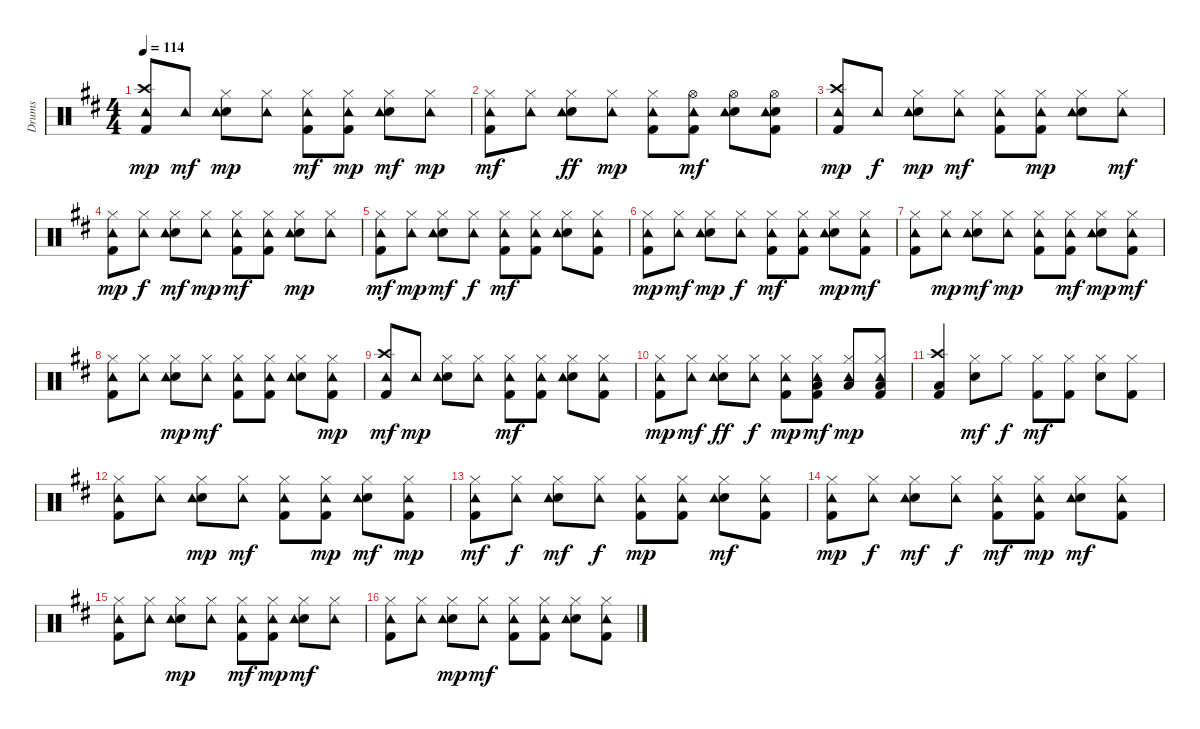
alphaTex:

\track ("Drums" "Drums") {instrument percussion}
\staff {score}
\articulation defaults
\ts (4 4)
\tempo 114
\clef neutral
\ks d
("Kick (hit) 2" "Crash high (hit)" "Tambourine (hit)").8{dy mp} "Tambourine (hit)".8{dy mf} ("Snare (hit) 2" "Hi-Hat (closed)" "Tambourine (hit)").8{dy mp} ("Hi-Hat (closed)" "Tambourine (hit)").8 ("Kick (hit) 2" "Hi-Hat (closed)" "Tambourine (hit)").8{dy mf} ("Kick (hit) 2" "Hi-Hat (closed)" "Tambourine (hit)").8{dy mp} ("Snare (hit) 2" "Hi-Hat (closed)" "Tambourine (hit)").8{dy mf} ("Hi-Hat (closed)" "Tambourine (hit)").8{dy mp} |
("Kick (hit) 2" "Hi-Hat (closed)" "Tambourine (hit)").8{dy mf} ("Hi-Hat (closed)" "Tambourine (hit)").8 ("Snare (hit) 2" "Hi-Hat (closed)" "Tambourine (hit)").8{dy ff} ("Hi-Hat (closed)" "Tambourine (hit)").8{dy mp} ("Kick (hit) 2" "Hi-Hat (closed)" "Tambourine (hit)").8 ("Kick (hit) 2" "Hi-Hat (open)" "Tambourine (hit)").8{dy mf} ("Snare (hit) 2" "Hi-Hat (open)" "Tambourine (hit)").8 ("Kick (hit) 2" "Snare (hit) 2" "Hi-Hat (open)" "Tambourine (hit)").8 |
("Kick (hit) 2" "Crash high (hit)" "Tambourine (hit)").8{dy mp} "Tambourine (hit)".8{dy f} ("Snare (hit) 2" "Hi-Hat (closed)" "Tambourine (hit)").8{dy mp} ("Hi-Hat (closed)" "Tambourine (hit)").8{dy mf} ("Kick (hit) 2" "Hi-Hat (closed)" "Tambourine (hit)").8 ("Kick (hit) 2" "Hi-Hat (closed)" "Tambourine (hit)").8{dy mp} ("Snare (hit) 2" "Hi-Hat (closed)" "Tambourine (hit)").8 ("Hi-Hat (closed)" "Tambourine (hit)").8{dy mf} |
("Kick (hit) 2" "Hi-Hat (closed)" "Tambourine (hit)").8{dy mp} ("Hi-Hat (closed)" "Tambourine (hit)").8{dy f} ("Snare (hit) 2" "Hi-Hat (closed)" "Tambourine (hit)").8{dy mf} ("Hi-Hat (closed)" "Tambourine (hit)").8{dy mp} ("Kick (hit) 2" "Hi-Hat (closed)" "Tambourine (hit)").8{dy mf} ("Kick (hit) 2" "Hi-Hat (closed)" "Tambourine (hit)").8 ("Snare (hit) 2" "Hi-Hat (closed)" "Tambourine (hit)").8{dy mp} ("Hi-Hat (closed)" "Tambourine (hit)").8 |
("Kick (hit) 2" "Hi-Hat (closed)" "Tambourine (hit)").8{dy mf} ("Hi-Hat (closed)" "Tambourine (hit)").8{dy mp} ("Snare (hit) 2" "Hi-Hat (closed)" "Tambourine (hit)").8{dy mf} ("Hi-Hat (closed)" "Tambourine (hit)").8{dy f} ("Kick (hit) 2" "Hi-Hat (closed)" "Tambourine (hit)").8{dy mf} ("Kick (hit) 2" "Hi-Hat (closed)" "Tambourine (hit)").8 ("Snare (hit) 2" "Hi-Hat (closed)" "Tambourine (hit)").8 ("Kick (hit) 2" "Hi-Hat (closed)" "Tambourine (hit)").8 |
("Kick (hit) 2" "Hi-Hat (closed)" "Tambourine (hit)").8{dy mp} ("Hi-Hat (closed)" "Tambourine (hit)").8{dy mf} ("Snare (hit) 2" "Hi-Hat (closed)" "Tambourine (hit)").8{dy mp} ("Hi-Hat (closed)" "Tambourine (hit)").8{dy f} ("Kick (hit) 2" "Hi-Hat (closed)" "Tambourine (hit)").8{dy mf} ("Kick (hit) 2" "Hi-Hat (closed)" "Tambourine (hit)").8 ("Snare (hit) 2" "Hi-Hat (closed)" "Tambourine (hit)").8{dy mp} ("Kick (hit) 2" "Hi-Hat (closed)" "Tambourine (hit)").8{dy mf} |
("Kick (hit) 2" "Hi-Hat (closed)" "Tambourine (hit)").8 ("Hi-Hat (closed)" "Tambourine (hit)").8{dy mp} ("Snare (hit) 2" "Hi-Hat (closed)" "Tambourine (hit)").8{dy mf} ("Hi-Hat (closed)" "Tambourine (hit)").8{dy mp} ("Kick (hit) 2" "Hi-Hat (closed)" "Tambourine (hit)").8 ("Kick (hit) 2" "Hi-Hat (closed)" "Tambourine (hit)").8{dy mf} ("Snare (hit) 2" "Hi-Hat (closed)" "Tambourine (hit)").8{dy mp} ("Kick (hit) 2" "Hi-Hat (closed)" "Tambourine (hit)").8{dy mf} |
("Kick (hit) 2" "Hi-Hat (closed)" "Tambourine (hit)").8 ("Hi-Hat (closed)" "Tambourine (hit)").8 ("Snare (hit) 2" "Hi-Hat (closed)" "Tambourine (hit)").8{dy mp} ("Hi-Hat (closed)" "Tambourine (hit)").8{dy mf} ("Kick (hit) 2" "Hi-Hat (closed)" "Tambourine (hit)").8 ("Kick (hit) 2" "Hi-Hat (closed)" "Tambourine (hit)").8 ("Snare (hit) 2" "Hi-Hat (closed)" "Tambourine (hit)").8 ("Kick (hit) 2" "Hi-Hat (closed)" "Tambourine (hit)").8{dy mp} |
("Kick (hit) 2" "Crash high (hit)" "Tambourine (hit)").8{dy mf} "Tambourine (hit)".8{dy mp} ("Snare (hit) 2" "Hi-Hat (closed)" "Tambourine (hit)").8 ("Hi-Hat (closed)" "Tambourine (hit)").8 ("Kick (hit) 2" "Hi-Hat (closed)" "Tambourine (hit)").8{dy mf} ("Kick (hit) 2" "Hi-Hat (closed)" "Tambourine (hit)").8 ("Snare (hit) 2" "Hi-Hat (closed)" "Tambourine (hit)").8 ("Kick (hit) 2" "Hi-Hat (closed)" "Tambourine (hit)").8 |
("Kick (hit) 2" "Hi-Hat (closed)" "Tambourine (hit)").8{dy mp} ("Hi-Hat (closed)" "Tambourine (hit)").8{dy mf} ("Snare (hit) 2" "Hi-Hat (closed)" "Tambourine (hit)").8{dy ff} ("Hi-Hat (closed)" "Tambourine (hit)").8{dy f} ("Kick (hit) 2" "Hi-Hat (closed)" "Tambourine (hit)").8{dy mp} ("Kick (hit) 2" "Low Floor Tom (hit)" "Hi-Hat (closed)" "Tambourine (hit)").8{dy mf} ("Low Floor Tom (hit)" "Hi-Hat (closed)" "Tambourine (hit)").8{dy mp} ("Kick (hit) 2" "Low Floor Tom (hit)" "Hi-Hat (closed)" "Tambourine (hit)").8 |
("Kick (hit) 2" "Low Floor Tom (hit)" "Crash high (hit)").4 ("Snare (hit) 2" "Hi-Hat (closed)").8{dy mf} "Hi-Hat (closed)".8{dy f} ("Kick (hit) 2" "Hi-Hat (closed)").8{dy mf} ("Kick (hit) 2" "Hi-Hat (closed)").8 ("Snare (hit) 2" "Hi-Hat (closed)").8 ("Kick (hit) 2" "Hi-Hat (closed)").8 |
("Kick (hit) 2" "Hi-Hat (closed)" "Tambourine (hit)").8 ("Hi-Hat (closed)" "Tambourine (hit)").8 ("Snare (hit) 2" "Hi-Hat (closed)" "Tambourine (hit)").8{dy mp} ("Hi-Hat (closed)" "Tambourine (hit)").8{dy mf} ("Kick (hit) 2" "Hi-Hat (closed)" "Tambourine (hit)").8 ("Kick (hit) 2" "Hi-Hat (closed)" "Tambourine (hit)").8{dy mp} ("Snare (hit) 2" "Hi-Hat (closed)" "Tambourine (hit)").8{dy mf} ("Kick (hit) 2" "Hi-Hat (closed)" "Tambourine (hit)").8{dy mp} |
("Kick (hit) 2" "Hi-Hat (closed)" "Tambourine (hit)").8{dy mf} ("Hi-Hat (closed)" "Tambourine (hit)").8{dy f} ("Snare (hit) 2" "Hi-Hat (closed)" "Tambourine (hit)").8{dy mf} ("Hi-Hat (closed)" "Tambourine (hit)").8{dy f} ("Kick (hit) 2" "Hi-Hat (closed)" "Tambourine (hit)").8{dy mp} ("Kick (hit) 2" "Hi-Hat (closed)" "Tambourine (hit)").8 ("Snare (hit) 2" "Hi-Hat (closed)" "Tambourine (hit)").8{dy mf} ("Kick (hit) 2" "Hi-Hat (closed)" "Tambourine (hit)").8 |
("Kick (hit) 2" "Hi-Hat (closed)" "Tambourine (hit)").8{dy mp} ("Hi-Hat (closed)" "Tambourine (hit)").8{dy f} ("Snare (hit) 2" "Hi-Hat (closed)" "Tambourine (hit)").8{dy mf} ("Hi-Hat (closed)" "Tambourine (hit)").8{dy f} ("Kick (hit) 2" "Hi-Hat (closed)" "Tambourine (hit)").8{dy mf} ("Kick (hit) 2" "Hi-Hat (closed)" "Tambourine (hit)").8{dy mp} ("Snare (hit) 2" "Hi-Hat (closed)" "Tambourine (hit)").8{dy mf} ("Kick (hit) 2" "Hi-Hat (closed)" "Tambourine (hit)").8 |
("Kick (hit) 2" "Hi-Hat (closed)" "Tambourine (hit)").8 ("Hi-Hat (closed)" "Tambourine (hit)").8 ("Snare (hit) 2" "Hi-Hat (closed)" "Tambourine (hit)").8{dy mp} ("Hi-Hat (closed)" "Tambourine (hit)").8 ("Kick (hit) 2" "Hi-Hat (closed)" "Tambourine (hit)").8{dy mf} ("Kick (hit) 2" "Hi-Hat (closed)" "Tambourine (hit)").8{dy mp} ("Snare (hit) 2" "Hi-Hat (closed)" "Tambourine (hit)").8{dy mf} ("Hi-Hat (closed)" "Tambourine (hit)").8 |
("Kick (hit) 2" "Hi-Hat (closed)" "Tambourine (hit)").8 ("Hi-Hat (closed)" "Tambourine (hit)").8 ("Snare (hit) 2" "Hi-Hat (closed)" "Tambourine (hit)").8{dy mp} ("Hi-Hat (closed)" "Tambourine (hit)").8{dy mf} ("Kick (hit) 2" "Hi-Hat (closed)" "Tambourine (hit)").8 ("Kick (hit) 2" "Hi-Hat (closed)" "Tambourine (hit)").8 ("Snare (hit) 2" "Hi-Hat (closed)" "Tambourine (hit)").8 ("Kick (hit) 2" "Hi-Hat (closed)" "Tambourine (hit)").8
